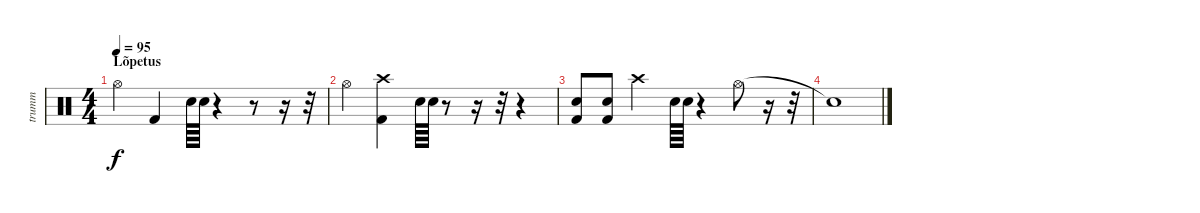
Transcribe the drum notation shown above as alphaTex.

\track ("trumm" "trumm") {instrument percussion}
\staff {score}
\articulation defaults
\ts (4 4)
\section ("" "Lõpetus")
\tempo 95
\clef neutral
\ks c "Hi-Hat (open)".4{dy f} "Kick (hit) 2".4 "Snare (hit) 2".64 "Snare (hit) 2".64
r.4 r.8 r.16 r.32 |
"Hi-Hat (open)".4 ("Crash high (hit)" "Kick (hit) 2").4 "Snare (hit) 2".64 "Snare (hit) 2".64 r.8 r.16 r.32 r.4 |
("Snare (hit) 2" "Kick (hit) 2").8 ("Snare (hit) 2" "Kick (hit) 2").8 "Crash high (hit)".4 "Snare (hit) 2".64 "Snare (hit) 2".64 r.4 "Hi-Hat (open)".8 r.16 r.32 |
"Snare (hit)"{t}.1
